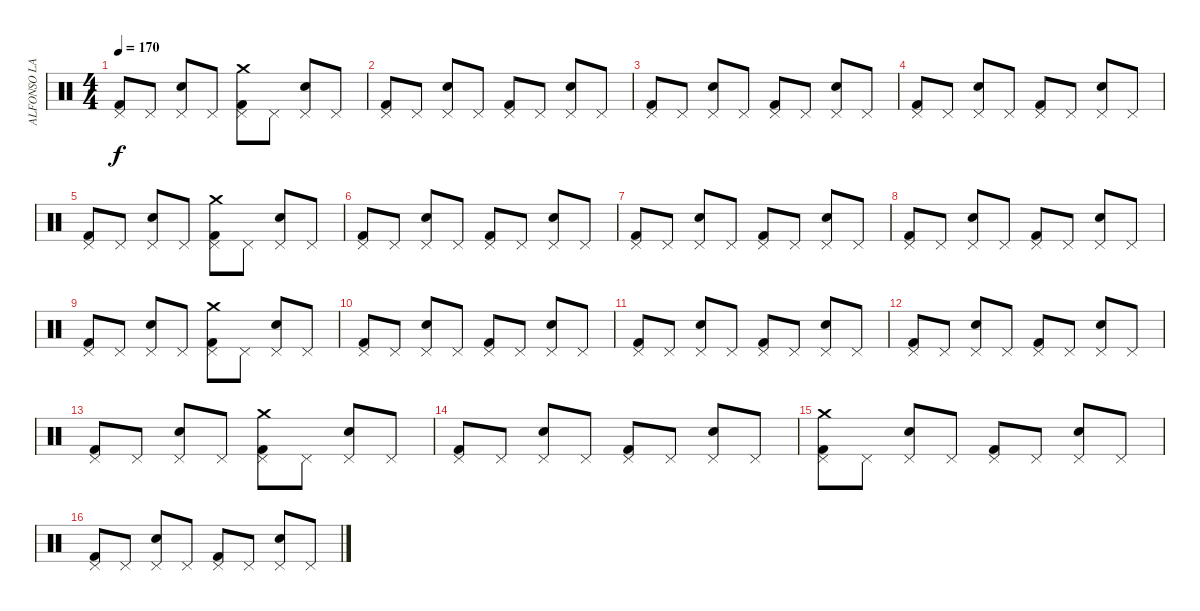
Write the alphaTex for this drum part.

\track ("ALFONSO LANTERO" "ALFONSO LA") {instrument percussion}
\staff {score}
\articulation defaults
\ts (4 4)
\tempo 170
\clef neutral
\ks c
("Kick (hit) 2" "Pedal Hi-Hat (hit)").8{dy f} "Pedal Hi-Hat (hit)".8 ("Electric Snare (hit)" "Pedal Hi-Hat (hit)").8 "Pedal Hi-Hat (hit)".8 ("Kick (hit) 2" "Pedal Hi-Hat (hit)" "Crash medium (hit)").8 "Pedal Hi-Hat (hit)".8 ("Electric Snare (hit)" "Pedal Hi-Hat (hit)").8 "Pedal Hi-Hat (hit)".8 |
("Kick (hit) 2" "Pedal Hi-Hat (hit)").8 "Pedal Hi-Hat (hit)".8 ("Electric Snare (hit)" "Pedal Hi-Hat (hit)").8 "Pedal Hi-Hat (hit)".8 ("Kick (hit) 2" "Pedal Hi-Hat (hit)").8 "Pedal Hi-Hat (hit)".8 ("Electric Snare (hit)" "Pedal Hi-Hat (hit)").8 "Pedal Hi-Hat (hit)".8 |
("Kick (hit) 2" "Pedal Hi-Hat (hit)").8 "Pedal Hi-Hat (hit)".8 ("Electric Snare (hit)" "Pedal Hi-Hat (hit)").8 "Pedal Hi-Hat (hit)".8 ("Kick (hit) 2" "Pedal Hi-Hat (hit)").8 "Pedal Hi-Hat (hit)".8 ("Electric Snare (hit)" "Pedal Hi-Hat (hit)").8 "Pedal Hi-Hat (hit)".8 |
("Kick (hit) 2" "Pedal Hi-Hat (hit)").8 "Pedal Hi-Hat (hit)".8 ("Electric Snare (hit)" "Pedal Hi-Hat (hit)").8 "Pedal Hi-Hat (hit)".8 ("Kick (hit) 2" "Pedal Hi-Hat (hit)").8 "Pedal Hi-Hat (hit)".8 ("Electric Snare (hit)" "Pedal Hi-Hat (hit)").8 "Pedal Hi-Hat (hit)".8 |
("Kick (hit) 2" "Pedal Hi-Hat (hit)").8 "Pedal Hi-Hat (hit)".8 ("Electric Snare (hit)" "Pedal Hi-Hat (hit)").8 "Pedal Hi-Hat (hit)".8 ("Kick (hit) 2" "Pedal Hi-Hat (hit)" "Crash medium (hit)").8 "Pedal Hi-Hat (hit)".8 ("Electric Snare (hit)" "Pedal Hi-Hat (hit)").8 "Pedal Hi-Hat (hit)".8 |
("Kick (hit) 2" "Pedal Hi-Hat (hit)").8 "Pedal Hi-Hat (hit)".8 ("Electric Snare (hit)" "Pedal Hi-Hat (hit)").8 "Pedal Hi-Hat (hit)".8 ("Kick (hit) 2" "Pedal Hi-Hat (hit)").8 "Pedal Hi-Hat (hit)".8 ("Electric Snare (hit)" "Pedal Hi-Hat (hit)").8 "Pedal Hi-Hat (hit)".8 |
("Kick (hit) 2" "Pedal Hi-Hat (hit)").8 "Pedal Hi-Hat (hit)".8 ("Electric Snare (hit)" "Pedal Hi-Hat (hit)").8 "Pedal Hi-Hat (hit)".8 ("Kick (hit) 2" "Pedal Hi-Hat (hit)").8 "Pedal Hi-Hat (hit)".8 ("Electric Snare (hit)" "Pedal Hi-Hat (hit)").8 "Pedal Hi-Hat (hit)".8 |
("Kick (hit) 2" "Pedal Hi-Hat (hit)").8 "Pedal Hi-Hat (hit)".8 ("Electric Snare (hit)" "Pedal Hi-Hat (hit)").8 "Pedal Hi-Hat (hit)".8 ("Kick (hit) 2" "Pedal Hi-Hat (hit)").8 "Pedal Hi-Hat (hit)".8 ("Electric Snare (hit)" "Pedal Hi-Hat (hit)").8 "Pedal Hi-Hat (hit)".8 |
("Kick (hit) 2" "Pedal Hi-Hat (hit)").8 "Pedal Hi-Hat (hit)".8 ("Electric Snare (hit)" "Pedal Hi-Hat (hit)").8 "Pedal Hi-Hat (hit)".8 ("Kick (hit) 2" "Pedal Hi-Hat (hit)" "Crash medium (hit)").8 "Pedal Hi-Hat (hit)".8 ("Electric Snare (hit)" "Pedal Hi-Hat (hit)").8 "Pedal Hi-Hat (hit)".8 |
("Kick (hit) 2" "Pedal Hi-Hat (hit)").8 "Pedal Hi-Hat (hit)".8 ("Electric Snare (hit)" "Pedal Hi-Hat (hit)").8 "Pedal Hi-Hat (hit)".8 ("Kick (hit) 2" "Pedal Hi-Hat (hit)").8 "Pedal Hi-Hat (hit)".8 ("Electric Snare (hit)" "Pedal Hi-Hat (hit)").8 "Pedal Hi-Hat (hit)".8 |
("Kick (hit) 2" "Pedal Hi-Hat (hit)").8 "Pedal Hi-Hat (hit)".8 ("Electric Snare (hit)" "Pedal Hi-Hat (hit)").8 "Pedal Hi-Hat (hit)".8 ("Kick (hit) 2" "Pedal Hi-Hat (hit)").8 "Pedal Hi-Hat (hit)".8 ("Electric Snare (hit)" "Pedal Hi-Hat (hit)").8 "Pedal Hi-Hat (hit)".8 |
("Kick (hit) 2" "Pedal Hi-Hat (hit)").8 "Pedal Hi-Hat (hit)".8 ("Electric Snare (hit)" "Pedal Hi-Hat (hit)").8 "Pedal Hi-Hat (hit)".8 ("Kick (hit) 2" "Pedal Hi-Hat (hit)").8 "Pedal Hi-Hat (hit)".8 ("Electric Snare (hit)" "Pedal Hi-Hat (hit)").8 "Pedal Hi-Hat (hit)".8 |
("Kick (hit) 2" "Pedal Hi-Hat (hit)").8 "Pedal Hi-Hat (hit)".8 ("Electric Snare (hit)" "Pedal Hi-Hat (hit)").8 "Pedal Hi-Hat (hit)".8 ("Kick (hit) 2" "Pedal Hi-Hat (hit)" "Crash medium (hit)").8 "Pedal Hi-Hat (hit)".8 ("Electric Snare (hit)" "Pedal Hi-Hat (hit)").8 "Pedal Hi-Hat (hit)".8 |
("Kick (hit) 2" "Pedal Hi-Hat (hit)").8 "Pedal Hi-Hat (hit)".8 ("Electric Snare (hit)" "Pedal Hi-Hat (hit)").8 "Pedal Hi-Hat (hit)".8 ("Kick (hit) 2" "Pedal Hi-Hat (hit)").8 "Pedal Hi-Hat (hit)".8 ("Electric Snare (hit)" "Pedal Hi-Hat (hit)").8 "Pedal Hi-Hat (hit)".8 |
("Kick (hit) 2" "Pedal Hi-Hat (hit)" "Crash medium (hit)").8 "Pedal Hi-Hat (hit)".8 ("Electric Snare (hit)" "Pedal Hi-Hat (hit)").8 "Pedal Hi-Hat (hit)".8 ("Kick (hit) 2" "Pedal Hi-Hat (hit)").8 "Pedal Hi-Hat (hit)".8 ("Electric Snare (hit)" "Pedal Hi-Hat (hit)").8 "Pedal Hi-Hat (hit)".8 |
("Kick (hit) 2" "Pedal Hi-Hat (hit)").8 "Pedal Hi-Hat (hit)".8 ("Electric Snare (hit)" "Pedal Hi-Hat (hit)").8 "Pedal Hi-Hat (hit)".8 ("Kick (hit) 2" "Pedal Hi-Hat (hit)").8 "Pedal Hi-Hat (hit)".8 ("Electric Snare (hit)" "Pedal Hi-Hat (hit)").8 "Pedal Hi-Hat (hit)".8
